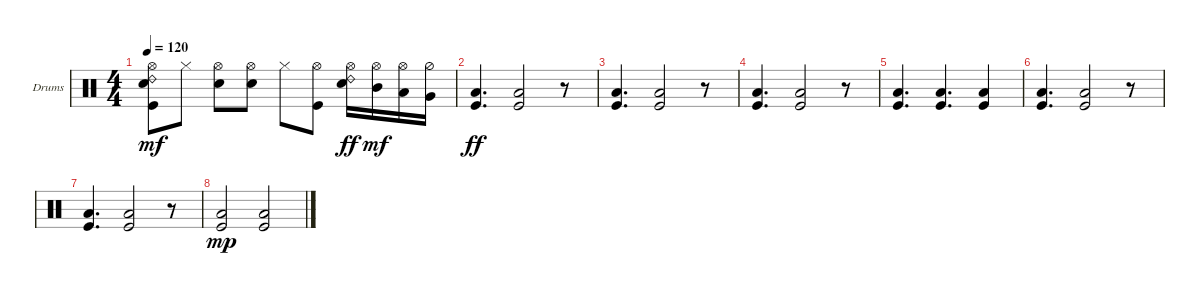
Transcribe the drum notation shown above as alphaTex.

\defaultSystemsLayout 4
\bracketExtendMode groupsimilarinstruments
\firstSystemTrackNameOrientation horizontal
\otherSystemsTrackNameOrientation horizontal
\track ("Drums" "Drums") {instrument percussion}
\staff {score}
\articulation defaults
\ts (4 4)
\tempo 120
\clef neutral
\ks c
("Hi-Hat (open)" "Snare (hit) 2" "Ride (bell) 2" "Kick (hit)").8{dy mf} "Hi-Hat (closed)".8 ("Hi-Hat (open)" "Snare (hit) 2").8 ("Hi-Hat (open)" "Snare (hit) 2").8 "Hi-Hat (closed)".8 ("Hi-Hat (open)" "Kick (hit)").8 ("Hi-Hat (open)" "Ride (bell) 2" "Snare (hit) 2").16{dy ff} ("Hi-Hat (open)" "Mid Tom (hit)").16{dy mf} ("Low Tom (hit)" "Hi-Hat (open)").16 ("Very Low Tom (hit)" "Hi-Hat (half)").16 |
("Kick (hit)" "Low Tom (hit)").4{d dy ff} ("Kick (hit)" "Low Tom (hit)").2 r.8 |
("Kick (hit)" "Low Tom (hit)").4{d} ("Kick (hit)" "Low Tom (hit)").2 r.8 |
("Kick (hit)" "Low Tom (hit)").4{d} ("Kick (hit)" "Low Tom (hit)").2 r.8 |
("Kick (hit)" "Low Tom (hit)").4{d} ("Kick (hit)" "Low Tom (hit)").4{d} ("Kick (hit)" "Low Tom (hit)").4 |
("Kick (hit)" "Low Tom (hit)").4{d} ("Kick (hit)" "Low Tom (hit)").2 r.8 |
("Kick (hit)" "Low Tom (hit)").4{d} ("Kick (hit)" "Low Tom (hit)").2 r.8 |
("Kick (hit)" "Low Tom (hit)").2{dy mp} ("Kick (hit)" "Low Tom (hit)").2
